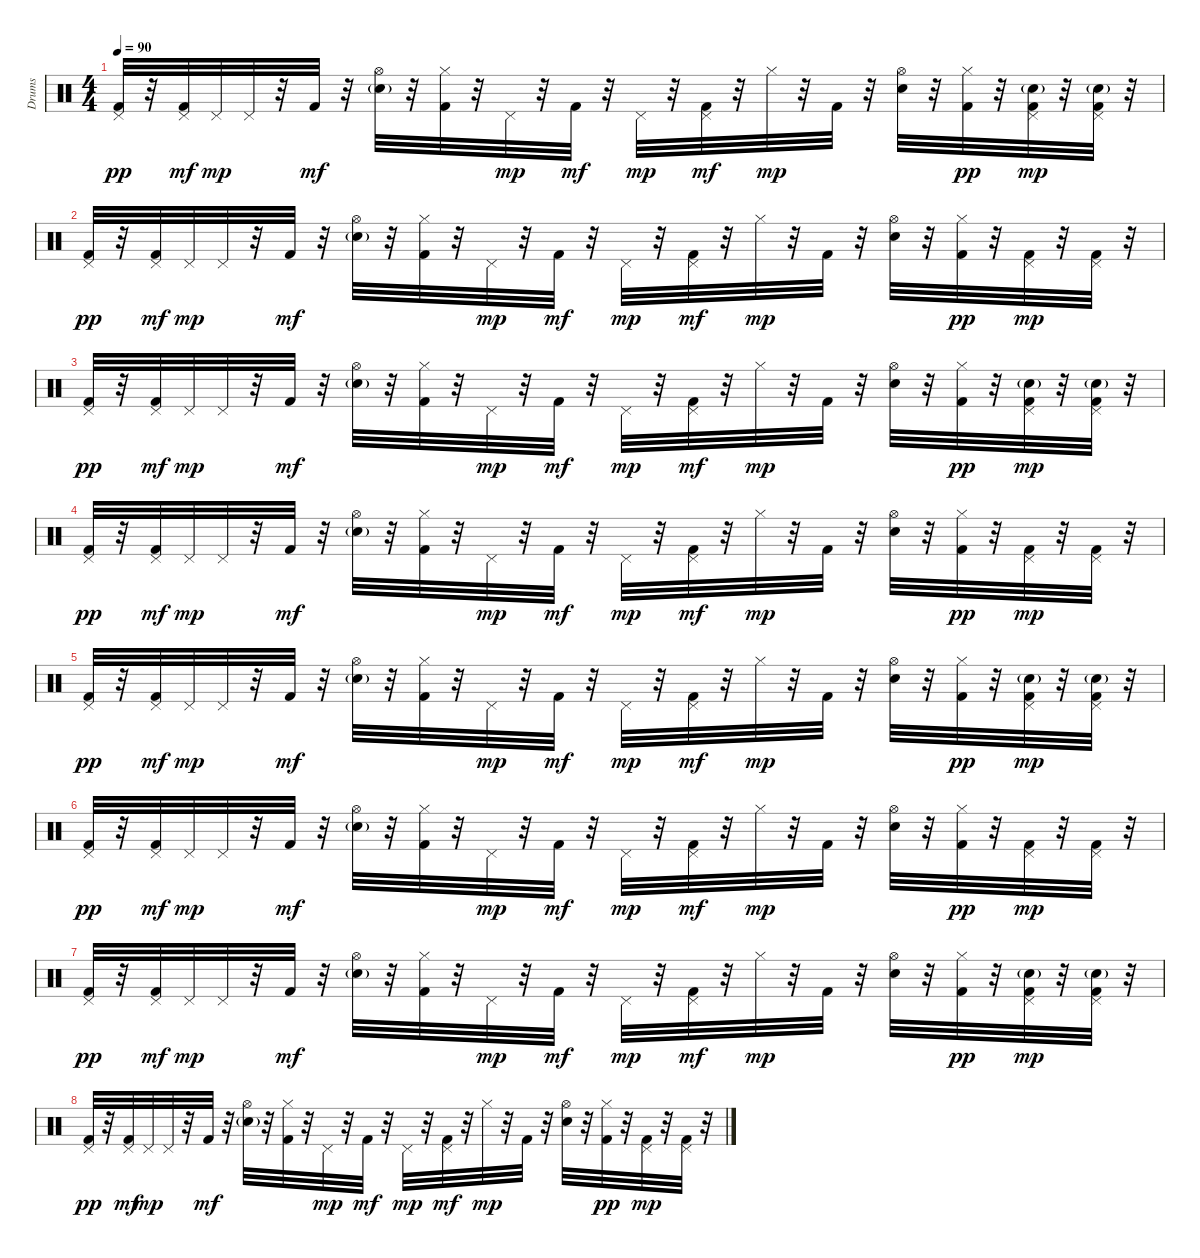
\track ("Drums" "Drums") {instrument percussion}
\staff {score}
\articulation defaults
\ts (4 4)
\tempo 90
\clef neutral
\ks c
("Pedal Hi-Hat (hit)" "Kick (hit) 2").32{dy pp} r.32 ("Pedal Hi-Hat (hit)" "Kick (hit) 2").32{dy mf} "Pedal Hi-Hat (hit)".32{dy mp} "Pedal Hi-Hat (hit)".32 r.32 "Kick (hit) 2".32{dy mf} r.32 ("Hi-Hat (open)" "Snare (hit) 2"{g}).32 r.32 ("Hi-Hat (closed)" "Kick (hit) 2").32 r.32 "Pedal Hi-Hat (hit)".32{dy mp} r.32 "Kick (hit) 2".32{dy mf} r.32 "Pedal Hi-Hat (hit)".32{dy mp} r.32 ("Pedal Hi-Hat (hit)" "Kick (hit) 2").32{dy mf} r.32 "Hi-Hat (closed)".32{dy mp} r.32 "Kick (hit) 2".32 r.32 ("Hi-Hat (open)" "Snare (hit) 2").32 r.32 ("Hi-Hat (closed)" "Kick (hit) 2").32{dy pp} r.32 ("Pedal Hi-Hat (hit)" "Snare (hit) 2"{g} "Kick (hit) 2").32{dy mp} r.32 ("Pedal Hi-Hat (hit)" "Snare (hit) 2"{g} "Kick (hit) 2").32 r.32 |
("Pedal Hi-Hat (hit)" "Kick (hit) 2").32{dy pp} r.32 ("Pedal Hi-Hat (hit)" "Kick (hit) 2").32{dy mf} "Pedal Hi-Hat (hit)".32{dy mp} "Pedal Hi-Hat (hit)".32 r.32 "Kick (hit) 2".32{dy mf} r.32 ("Hi-Hat (open)" "Snare (hit) 2"{g}).32 r.32 ("Hi-Hat (closed)" "Kick (hit) 2").32 r.32 "Pedal Hi-Hat (hit)".32{dy mp} r.32 "Kick (hit) 2".32{dy mf} r.32 "Pedal Hi-Hat (hit)".32{dy mp} r.32 ("Pedal Hi-Hat (hit)" "Kick (hit) 2").32{dy mf} r.32 "Hi-Hat (closed)".32{dy mp} r.32 "Kick (hit) 2".32 r.32 ("Hi-Hat (open)" "Snare (hit) 2").32 r.32 ("Hi-Hat (closed)" "Kick (hit) 2").32{dy pp} r.32 ("Pedal Hi-Hat (hit)" "Kick (hit) 2").32{dy mp} r.32 ("Pedal Hi-Hat (hit)" "Kick (hit) 2").32 r.32 |
("Pedal Hi-Hat (hit)" "Kick (hit) 2").32{dy pp} r.32 ("Pedal Hi-Hat (hit)" "Kick (hit) 2").32{dy mf} "Pedal Hi-Hat (hit)".32{dy mp} "Pedal Hi-Hat (hit)".32 r.32 "Kick (hit) 2".32{dy mf} r.32 ("Hi-Hat (open)" "Snare (hit) 2"{g}).32 r.32 ("Hi-Hat (closed)" "Kick (hit) 2").32 r.32 "Pedal Hi-Hat (hit)".32{dy mp} r.32 "Kick (hit) 2".32{dy mf} r.32 "Pedal Hi-Hat (hit)".32{dy mp} r.32 ("Pedal Hi-Hat (hit)" "Kick (hit) 2").32{dy mf} r.32 "Hi-Hat (closed)".32{dy mp} r.32 "Kick (hit) 2".32 r.32 ("Hi-Hat (open)" "Snare (hit) 2").32 r.32 ("Hi-Hat (closed)" "Kick (hit) 2").32{dy pp} r.32 ("Pedal Hi-Hat (hit)" "Snare (hit) 2"{g} "Kick (hit) 2").32{dy mp} r.32 ("Pedal Hi-Hat (hit)" "Snare (hit) 2"{g} "Kick (hit) 2").32 r.32 |
("Pedal Hi-Hat (hit)" "Kick (hit) 2").32{dy pp} r.32 ("Pedal Hi-Hat (hit)" "Kick (hit) 2").32{dy mf} "Pedal Hi-Hat (hit)".32{dy mp} "Pedal Hi-Hat (hit)".32 r.32 "Kick (hit) 2".32{dy mf} r.32 ("Hi-Hat (open)" "Snare (hit) 2"{g}).32 r.32 ("Hi-Hat (closed)" "Kick (hit) 2").32 r.32 "Pedal Hi-Hat (hit)".32{dy mp} r.32 "Kick (hit) 2".32{dy mf} r.32 "Pedal Hi-Hat (hit)".32{dy mp} r.32 ("Pedal Hi-Hat (hit)" "Kick (hit) 2").32{dy mf} r.32 "Hi-Hat (closed)".32{dy mp} r.32 "Kick (hit) 2".32 r.32 ("Hi-Hat (open)" "Snare (hit) 2").32 r.32 ("Hi-Hat (closed)" "Kick (hit) 2").32{dy pp} r.32 ("Pedal Hi-Hat (hit)" "Kick (hit) 2").32{dy mp} r.32 ("Pedal Hi-Hat (hit)" "Kick (hit) 2").32 r.32 |
("Pedal Hi-Hat (hit)" "Kick (hit) 2").32{dy pp} r.32 ("Pedal Hi-Hat (hit)" "Kick (hit) 2").32{dy mf} "Pedal Hi-Hat (hit)".32{dy mp} "Pedal Hi-Hat (hit)".32 r.32 "Kick (hit) 2".32{dy mf} r.32 ("Hi-Hat (open)" "Snare (hit) 2"{g}).32 r.32 ("Hi-Hat (closed)" "Kick (hit) 2").32 r.32 "Pedal Hi-Hat (hit)".32{dy mp} r.32 "Kick (hit) 2".32{dy mf} r.32 "Pedal Hi-Hat (hit)".32{dy mp} r.32 ("Pedal Hi-Hat (hit)" "Kick (hit) 2").32{dy mf} r.32 "Hi-Hat (closed)".32{dy mp} r.32 "Kick (hit) 2".32 r.32 ("Hi-Hat (open)" "Snare (hit) 2").32 r.32 ("Hi-Hat (closed)" "Kick (hit) 2").32{dy pp} r.32 ("Pedal Hi-Hat (hit)" "Snare (hit) 2"{g} "Kick (hit) 2").32{dy mp} r.32 ("Pedal Hi-Hat (hit)" "Snare (hit) 2"{g} "Kick (hit) 2").32 r.32 |
("Pedal Hi-Hat (hit)" "Kick (hit) 2").32{dy pp} r.32 ("Pedal Hi-Hat (hit)" "Kick (hit) 2").32{dy mf} "Pedal Hi-Hat (hit)".32{dy mp} "Pedal Hi-Hat (hit)".32 r.32 "Kick (hit) 2".32{dy mf} r.32 ("Hi-Hat (open)" "Snare (hit) 2"{g}).32 r.32 ("Hi-Hat (closed)" "Kick (hit) 2").32 r.32 "Pedal Hi-Hat (hit)".32{dy mp} r.32 "Kick (hit) 2".32{dy mf} r.32 "Pedal Hi-Hat (hit)".32{dy mp} r.32 ("Pedal Hi-Hat (hit)" "Kick (hit) 2").32{dy mf} r.32 "Hi-Hat (closed)".32{dy mp} r.32 "Kick (hit) 2".32 r.32 ("Hi-Hat (open)" "Snare (hit) 2").32 r.32 ("Hi-Hat (closed)" "Kick (hit) 2").32{dy pp} r.32 ("Pedal Hi-Hat (hit)" "Kick (hit) 2").32{dy mp} r.32 ("Pedal Hi-Hat (hit)" "Kick (hit) 2").32 r.32 |
("Pedal Hi-Hat (hit)" "Kick (hit) 2").32{dy pp} r.32 ("Pedal Hi-Hat (hit)" "Kick (hit) 2").32{dy mf} "Pedal Hi-Hat (hit)".32{dy mp} "Pedal Hi-Hat (hit)".32 r.32 "Kick (hit) 2".32{dy mf} r.32 ("Hi-Hat (open)" "Snare (hit) 2"{g}).32 r.32 ("Hi-Hat (closed)" "Kick (hit) 2").32 r.32 "Pedal Hi-Hat (hit)".32{dy mp} r.32 "Kick (hit) 2".32{dy mf} r.32 "Pedal Hi-Hat (hit)".32{dy mp} r.32 ("Pedal Hi-Hat (hit)" "Kick (hit) 2").32{dy mf} r.32 "Hi-Hat (closed)".32{dy mp} r.32 "Kick (hit) 2".32 r.32 ("Hi-Hat (open)" "Snare (hit) 2").32 r.32 ("Hi-Hat (closed)" "Kick (hit) 2").32{dy pp} r.32 ("Pedal Hi-Hat (hit)" "Snare (hit) 2"{g} "Kick (hit) 2").32{dy mp} r.32 ("Pedal Hi-Hat (hit)" "Snare (hit) 2"{g} "Kick (hit) 2").32 r.32 |
("Pedal Hi-Hat (hit)" "Kick (hit) 2").32{dy pp} r.32 ("Pedal Hi-Hat (hit)" "Kick (hit) 2").32{dy mf} "Pedal Hi-Hat (hit)".32{dy mp} "Pedal Hi-Hat (hit)".32 r.32 "Kick (hit) 2".32{dy mf} r.32 ("Hi-Hat (open)" "Snare (hit) 2"{g}).32 r.32 ("Hi-Hat (closed)" "Kick (hit) 2").32 r.32 "Pedal Hi-Hat (hit)".32{dy mp} r.32 "Kick (hit) 2".32{dy mf} r.32 "Pedal Hi-Hat (hit)".32{dy mp} r.32 ("Pedal Hi-Hat (hit)" "Kick (hit) 2").32{dy mf} r.32 "Hi-Hat (closed)".32{dy mp} r.32 "Kick (hit) 2".32 r.32 ("Hi-Hat (open)" "Snare (hit) 2").32 r.32 ("Hi-Hat (closed)" "Kick (hit) 2").32{dy pp} r.32 ("Pedal Hi-Hat (hit)" "Kick (hit) 2").32{dy mp} r.32 ("Pedal Hi-Hat (hit)" "Kick (hit) 2").32 r.32
